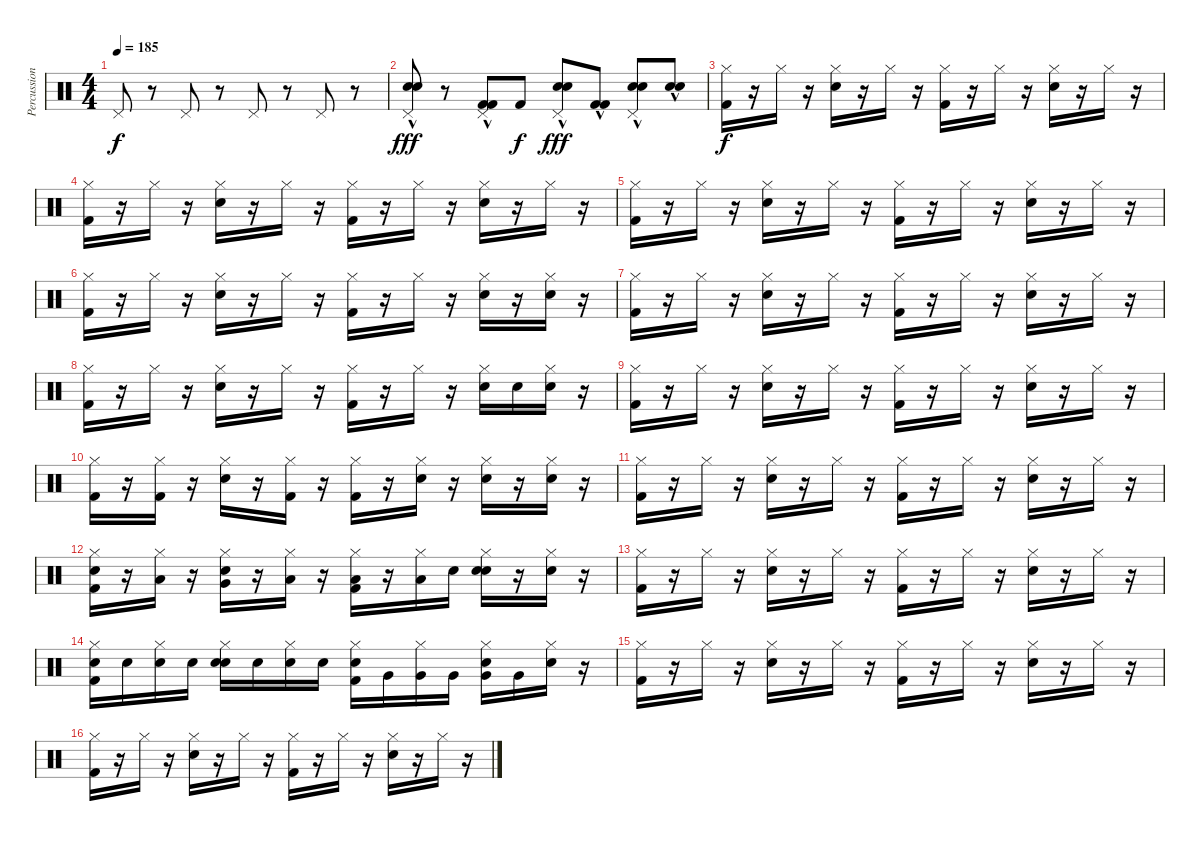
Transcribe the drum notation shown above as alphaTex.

\track ("Percussion" "Percussion") {instrument percussion}
\staff {score}
\articulation defaults
\ts (4 4)
\tempo 185
\clef neutral
\ks c "Pedal Hi-Hat (hit)".8{dy f}
r.8 "Pedal Hi-Hat (hit)".8 r.8 "Pedal Hi-Hat (hit)".8 r.8 "Pedal Hi-Hat (hit)".8 r.8 |
("Pedal Hi-Hat (hit)" "Snare (hit) 2" "Snare (hit) 2"{hac}).8{dy fff} r.8 ("Pedal Hi-Hat (hit)" "Kick (hit) 2" "Kick (hit) 2"{hac}).8 "Kick (hit) 2".8{dy f} ("Pedal Hi-Hat (hit)" "Snare (hit) 2" "Snare (hit) 2"{hac}).8{dy fff} ("Kick (hit) 2" "Kick (hit) 2"{hac}).8 ("Pedal Hi-Hat (hit)" "Snare (hit) 2" "Snare (hit) 2"{hac}).8 ("Snare (hit) 2" "Snare (hit) 2"{hac}).8 |
("Hi-Hat (closed)" "Kick (hit) 2").16{dy f} r.16 "Hi-Hat (closed)".16 r.16 ("Hi-Hat (closed)" "Snare (hit) 2").16 r.16 "Hi-Hat (closed)".16 r.16 ("Hi-Hat (closed)" "Kick (hit) 2").16 r.16 "Hi-Hat (closed)".16 r.16 ("Hi-Hat (closed)" "Snare (hit) 2").16 r.16 "Hi-Hat (closed)".16 r.16 |
("Hi-Hat (closed)" "Kick (hit) 2").16 r.16 "Hi-Hat (closed)".16 r.16 ("Hi-Hat (closed)" "Snare (hit) 2").16 r.16 "Hi-Hat (closed)".16 r.16 ("Hi-Hat (closed)" "Kick (hit) 2").16 r.16 "Hi-Hat (closed)".16 r.16 ("Hi-Hat (closed)" "Snare (hit) 2").16 r.16 "Hi-Hat (closed)".16 r.16 |
("Hi-Hat (closed)" "Kick (hit) 2").16 r.16 "Hi-Hat (closed)".16 r.16 ("Hi-Hat (closed)" "Snare (hit) 2").16 r.16 "Hi-Hat (closed)".16 r.16 ("Hi-Hat (closed)" "Kick (hit) 2").16 r.16 "Hi-Hat (closed)".16 r.16 ("Hi-Hat (closed)" "Snare (hit) 2").16 r.16 "Hi-Hat (closed)".16 r.16 |
("Hi-Hat (closed)" "Kick (hit) 2").16 r.16 "Hi-Hat (closed)".16 r.16 ("Hi-Hat (closed)" "Snare (hit) 2").16 r.16 "Hi-Hat (closed)".16 r.16 ("Hi-Hat (closed)" "Kick (hit) 2").16 r.16 "Hi-Hat (closed)".16 r.16 ("Hi-Hat (closed)" "Snare (hit) 2").16 r.16 ("Hi-Hat (closed)" "Snare (hit) 2").16 r.16 |
("Hi-Hat (closed)" "Kick (hit) 2").16 r.16 "Hi-Hat (closed)".16 r.16 ("Hi-Hat (closed)" "Snare (hit) 2").16 r.16 "Hi-Hat (closed)".16 r.16 ("Hi-Hat (closed)" "Kick (hit) 2").16 r.16 "Hi-Hat (closed)".16 r.16 ("Hi-Hat (closed)" "Snare (hit) 2").16 r.16 "Hi-Hat (closed)".16 r.16 |
("Hi-Hat (closed)" "Kick (hit) 2").16 r.16 "Hi-Hat (closed)".16 r.16 ("Hi-Hat (closed)" "Snare (hit) 2").16 r.16 "Hi-Hat (closed)".16 r.16 ("Hi-Hat (closed)" "Kick (hit) 2").16 r.16 "Hi-Hat (closed)".16 r.16 ("Hi-Hat (closed)" "Snare (hit) 2").16 "Snare (hit) 2".16 ("Hi-Hat (closed)" "Snare (hit) 2").16 r.16 |
("Hi-Hat (closed)" "Kick (hit) 2").16 r.16 "Hi-Hat (closed)".16 r.16 ("Hi-Hat (closed)" "Snare (hit) 2").16 r.16 "Hi-Hat (closed)".16 r.16 ("Hi-Hat (closed)" "Kick (hit) 2").16 r.16 "Hi-Hat (closed)".16 r.16 ("Hi-Hat (closed)" "Snare (hit) 2").16 r.16 "Hi-Hat (closed)".16 r.16 |
("Hi-Hat (closed)" "Kick (hit) 2").16 r.16 ("Hi-Hat (closed)" "Kick (hit) 2").16 r.16 ("Hi-Hat (closed)" "Snare (hit) 2").16 r.16 ("Hi-Hat (closed)" "Kick (hit) 2").16 r.16 ("Hi-Hat (closed)" "Kick (hit) 2").16 r.16 ("Hi-Hat (closed)" "Snare (hit) 2").16 r.16 ("Hi-Hat (closed)" "Snare (hit) 2").16 r.16 ("Hi-Hat (closed)" "Snare (hit) 2").16 r.16 |
("Hi-Hat (closed)" "Kick (hit) 2").16 r.16 "Hi-Hat (closed)".16 r.16 ("Hi-Hat (closed)" "Snare (hit) 2").16 r.16 "Hi-Hat (closed)".16 r.16 ("Hi-Hat (closed)" "Kick (hit) 2").16 r.16 "Hi-Hat (closed)".16 r.16 ("Hi-Hat (closed)" "Snare (hit) 2").16 r.16 "Hi-Hat (closed)".16 r.16 |
("Snare (hit) 2" "Hi-Hat (closed)" "Kick (hit) 2").16 r.16 ("Low Floor Tom (hit)" "Hi-Hat (closed)").16 r.16 ("Very Low Tom (hit)" "Hi-Hat (closed)" "Snare (hit) 2").16 r.16 ("Low Tom (hit)" "Hi-Hat (closed)").16 r.16 ("Low Floor Tom (hit)" "Hi-Hat (closed)" "Kick (hit) 2").16 r.16 ("Low Floor Tom (hit)" "Hi-Hat (closed)").16 "Snare (hit) 2".16 ("Snare (hit) 2" "Hi-Hat (closed)" "Snare (hit) 2").16 r.16 ("Snare (hit) 2" "Hi-Hat (closed)").16 r.16 |
("Hi-Hat (closed)" "Kick (hit) 2").16 r.16 "Hi-Hat (closed)".16 r.16 ("Hi-Hat (closed)" "Snare (hit) 2").16 r.16 "Hi-Hat (closed)".16 r.16 ("Hi-Hat (closed)" "Kick (hit) 2").16 r.16 "Hi-Hat (closed)".16 r.16 ("Hi-Hat (closed)" "Snare (hit) 2").16 r.16 "Hi-Hat (closed)".16 r.16 |
("Snare (hit) 2" "Hi-Hat (closed)" "Kick (hit) 2").16 "Snare (hit) 2".16 ("Snare (hit) 2" "Hi-Hat (closed)").16 "Snare (hit) 2".16 ("Snare (hit) 2" "Hi-Hat (closed)" "Snare (hit) 2").16 "Snare (hit) 2".16 ("Snare (hit) 2" "Hi-Hat (closed)").16 "Snare (hit) 2".16 ("Snare (hit) 2" "Hi-Hat (closed)" "Kick (hit) 2").16 "Very Low Tom (hit)".16 ("Very Low Tom (hit)" "Hi-Hat (closed)").16 "Very Low Tom (hit)".16 ("Very Low Tom (hit)" "Hi-Hat (closed)" "Snare (hit) 2").16 "Very Low Tom (hit)".16 ("Snare (hit) 2" "Hi-Hat (closed)").16 r.16 |
("Hi-Hat (closed)" "Kick (hit) 2").16 r.16 "Hi-Hat (closed)".16 r.16 ("Hi-Hat (closed)" "Snare (hit) 2").16 r.16 "Hi-Hat (closed)".16 r.16 ("Hi-Hat (closed)" "Kick (hit) 2").16 r.16 "Hi-Hat (closed)".16 r.16 ("Hi-Hat (closed)" "Snare (hit) 2").16 r.16 "Hi-Hat (closed)".16 r.16 |
("Hi-Hat (closed)" "Kick (hit) 2").16 r.16 "Hi-Hat (closed)".16 r.16 ("Hi-Hat (closed)" "Snare (hit) 2").16 r.16 "Hi-Hat (closed)".16 r.16 ("Hi-Hat (closed)" "Kick (hit) 2").16 r.16 "Hi-Hat (closed)".16 r.16 ("Hi-Hat (closed)" "Snare (hit) 2").16 r.16 "Hi-Hat (closed)".16 r.16
